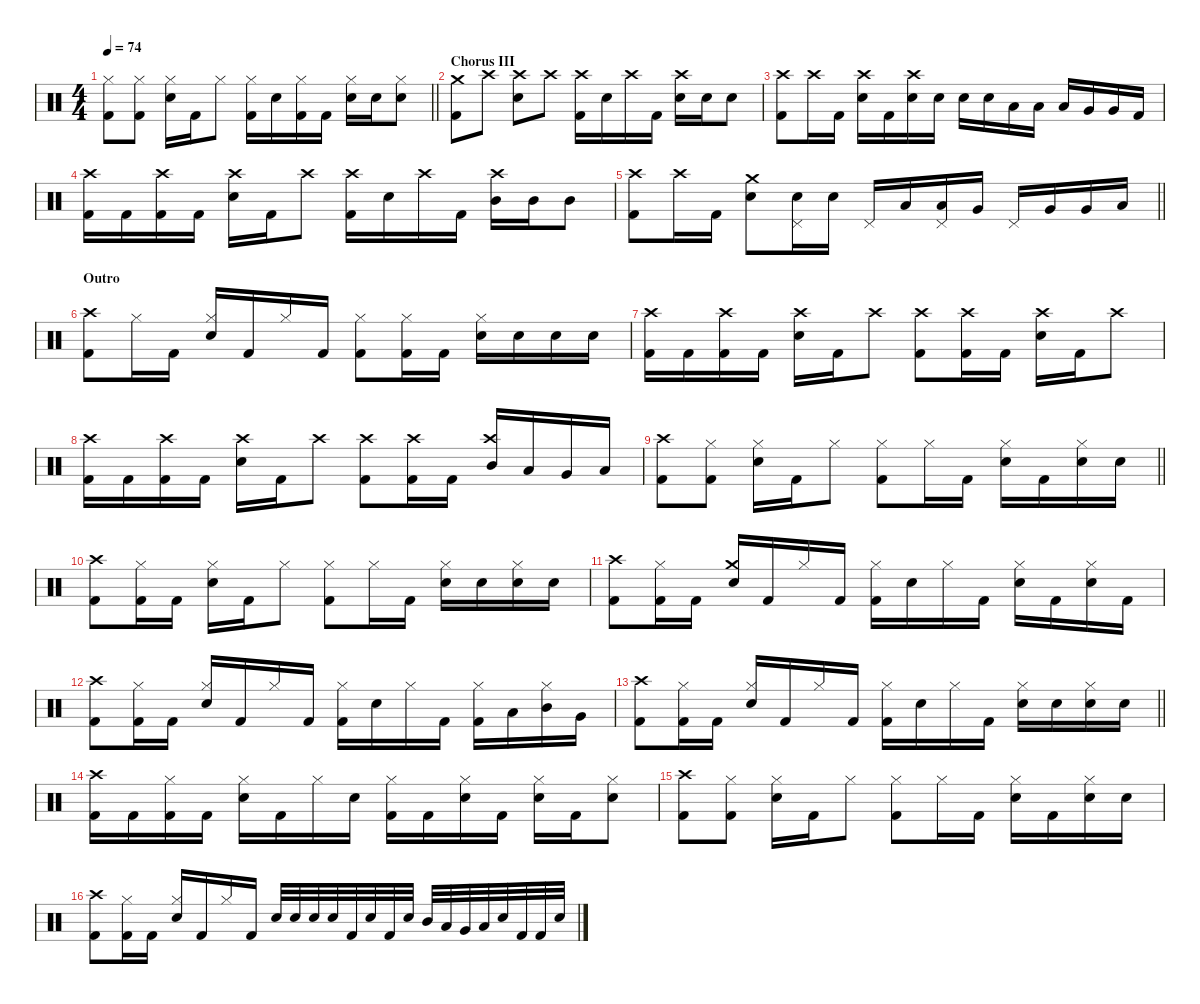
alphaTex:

\defaultSystemsLayout 4
\hideDynamics
\bracketExtendMode nobrackets
\singleTrackTrackNamePolicy hidden
\multiTrackTrackNamePolicy hidden
\firstSystemTrackNameMode fullname
\firstSystemTrackNameOrientation horizontal
\otherSystemsTrackNameOrientation horizontal
\track ("Bill Ward" "drm.") {instrument percussion}
\staff {score}
\articulation defaults
\ts (4 4)
\tempo 74
\clef neutral
\barLineRight lightlight
\ks c
("Kick (hit) 2" "Hi-Hat (closed)").8{dy f beam Down} ("Hi-Hat (closed)" "Kick (hit) 2").8{beam Down} ("Snare (hit) 2" "Hi-Hat (closed)").16{beam Down} "Kick (hit) 2".16{beam Down} "Hi-Hat (closed)".8{beam Down} ("Kick (hit) 2" "Hi-Hat (closed)").16{beam Down} "Snare (hit) 2".16{beam Down} ("Kick (hit) 2" "Hi-Hat (closed)").16{beam Down} "Kick (hit) 2".16{beam Down} ("Snare (hit) 2" "Hi-Hat (closed)").16{beam Down} "Snare (hit) 2".16{beam Down} ("Hi-Hat (closed)" "Snare (hit) 2").8{beam Down} |
\section ("" "Chorus III")
("Kick (hit) 2" "Crash medium (hit)").8{beam Down} "Crash high (hit)".8{beam Down} ("Snare (hit) 2" "Crash high (hit)").8{beam Down} "Crash high (hit)".8{beam Down} ("Kick (hit) 2" "Crash high (hit)").16{beam Down} "Snare (hit) 2".16{beam Down} "Crash high (hit)".16{beam Down} "Kick (hit) 2".16{beam Down} ("Snare (hit) 2" "Crash high (hit)").16{beam Down} "Snare (hit) 2".16{beam Down} "Snare (hit) 2".8{beam Down} |
("Kick (hit) 2" "Crash high (hit)").8{beam Down} "Crash high (hit)".16{beam Down} "Kick (hit) 2".16{beam Down} ("Snare (hit) 2" "Crash high (hit)").16{beam Down} "Kick (hit) 2".16{beam Down} ("Snare (hit) 2" "Crash high (hit)").16{beam Down} "Snare (hit) 2".16{beam Down} "Snare (hit) 2".16{beam Down} "Snare (hit) 2".16{beam Down} "Low Tom (hit)".16{beam Down} "Low Tom (hit)".16{beam Down} "Low Tom (hit)".16{beam Up} "Very Low Tom (hit)".16{beam Up} "Very Low Tom (hit)".16{beam Up} "Kick (hit) 2".16{beam Up} |
("Kick (hit) 2" "Crash high (hit)").16{beam Down} "Kick (hit) 2".16{beam Down} ("Crash high (hit)" "Kick (hit) 2").16{beam Down} "Kick (hit) 2".16{beam Down} ("Crash high (hit)" "Snare (hit) 2").16{beam Down} "Kick (hit) 2".16{beam Down} "Crash high (hit)".8{beam Down} ("Crash high (hit)" "Kick (hit) 2").16{beam Down} "Snare (hit) 2".16{beam Down} "Crash high (hit)".16{beam Down} "Kick (hit) 2".16{beam Down} ("Crash high (hit)" "Mid Tom (hit)").16{beam Down} "Mid Tom (hit)".16{beam Down} "Mid Tom (hit)".8{beam Down} |
\barLineRight lightlight
("Kick (hit) 2" "Crash high (hit)").8{beam Down} "Crash high (hit)".16{beam Down} "Kick (hit) 2".16{beam Down} ("Snare (hit) 2" "Crash medium (hit)").8{beam Down} ("Pedal Hi-Hat (hit)" "Snare (hit) 2").16{beam Down} "Snare (hit) 2".16{beam Down} "Pedal Hi-Hat (hit)".16{beam Up} "Low Tom (hit)".16{beam Up} ("Pedal Hi-Hat (hit)" "Low Tom (hit)").16{beam Up} "Very Low Tom (hit)".16{beam Up} "Pedal Hi-Hat (hit)".16{beam Up} "Very Low Tom (hit)".16{beam Up} "Very Low Tom (hit)".16{beam Up} "Low Floor Tom (hit)".16{beam Up} |
\section ("" "Outro")
("Kick (hit) 2" "Crash high (hit)").8{beam Down} "Hi-Hat (closed)".16{beam Down} "Kick (hit) 2".16{beam Down} ("Snare (hit) 2" "Hi-Hat (closed)").16{beam Up} "Kick (hit) 2".16{beam Up} "Hi-Hat (closed)".16{beam Up} "Kick (hit) 2".16{beam Up} ("Kick (hit) 2" "Hi-Hat (closed)").8{beam Down} ("Kick (hit) 2" "Hi-Hat (closed)").16{beam Down} "Kick (hit) 2".16{beam Down} ("Snare (hit) 2" "Hi-Hat (closed)").16{beam Down} "Snare (hit) 2".16{beam Down} "Snare (hit) 2".16{beam Down} "Snare (hit) 2".16{beam Down} |
("Kick (hit) 2" "Crash high (hit)").16{beam Down} "Kick (hit) 2".16{beam Down} ("Crash high (hit)" "Kick (hit) 2").16{beam Down} "Kick (hit) 2".16{beam Down} ("Crash high (hit)" "Snare (hit) 2").16{beam Down} "Kick (hit) 2".16{beam Down} "Crash high (hit)".8{beam Down} ("Kick (hit) 2" "Crash high (hit)").8{beam Down} ("Kick (hit) 2" "Crash high (hit)").16{beam Down} "Kick (hit) 2".16{beam Down} ("Snare (hit) 2" "Crash high (hit)").16{beam Down} "Kick (hit) 2".16{beam Down} "Crash high (hit)".8{beam Down} |
("Kick (hit) 2" "Crash high (hit)").16{beam Down} "Kick (hit) 2".16{beam Down} ("Crash high (hit)" "Kick (hit) 2").16{beam Down} "Kick (hit) 2".16{beam Down} ("Crash high (hit)" "Snare (hit) 2").16{beam Down} "Kick (hit) 2".16{beam Down} "Crash high (hit)".8{beam Down} ("Kick (hit) 2" "Crash high (hit)").8{beam Down} ("Kick (hit) 2" "Crash high (hit)").16{beam Down} "Kick (hit) 2".16{beam Down} ("Mid Tom (hit)" "Crash high (hit)").16{beam Up} "Low Tom (hit)".16{beam Up} "Very Low Tom (hit)".16{beam Up} "Low Floor Tom (hit)".16{beam Up} |
\barLineRight lightlight
("Kick (hit) 2" "Crash high (hit)").8{beam Down} ("Kick (hit) 2" "Hi-Hat (closed)").8{beam Down} ("Snare (hit) 2" "Hi-Hat (closed)").16{beam Down} "Kick (hit) 2".16{beam Down} "Hi-Hat (closed)".8{beam Down} ("Kick (hit) 2" "Hi-Hat (closed)").8{beam Down} "Hi-Hat (closed)".16{beam Down} "Kick (hit) 2".16{beam Down} ("Snare (hit) 2" "Hi-Hat (closed)").16{beam Down} "Kick (hit) 2".16{beam Down} ("Snare (hit) 2" "Hi-Hat (closed)").16{beam Down} "Snare (hit) 2".16{beam Down} |
("Kick (hit) 2" "Crash high (hit)").8{beam Down} ("Kick (hit) 2" "Hi-Hat (closed)").16{beam Down} "Kick (hit) 2".16{beam Down} ("Snare (hit) 2" "Hi-Hat (closed)").16{beam Down} "Kick (hit) 2".16{beam Down} "Hi-Hat (closed)".8{beam Down} ("Kick (hit) 2" "Hi-Hat (closed)").8{beam Down} "Hi-Hat (closed)".16{beam Down} "Kick (hit) 2".16{beam Down} ("Snare (hit) 2" "Hi-Hat (closed)").16{beam Down} "Snare (hit) 2".16{beam Down} ("Snare (hit) 2" "Hi-Hat (closed)").16{beam Down} "Snare (hit) 2".16{beam Down} |
("Kick (hit) 2" "Crash high (hit)").8{beam Down} ("Kick (hit) 2" "Hi-Hat (closed)").16{beam Down} "Kick (hit) 2".16{beam Down} ("Snare (hit) 2" "Crash medium (hit)").16{beam Up} "Kick (hit) 2".16{beam Up} "Hi-Hat (closed)".16{beam Up} "Kick (hit) 2".16{beam Up} ("Kick (hit) 2" "Hi-Hat (closed)").16{beam Down} "Snare (hit) 2".16{beam Down} "Hi-Hat (closed)".16{beam Down} "Kick (hit) 2".16{beam Down} ("Snare (hit) 2" "Hi-Hat (closed)").16{beam Down} "Kick (hit) 2".16{beam Down} ("Snare (hit) 2" "Hi-Hat (closed)").16{beam Down} "Kick (hit) 2".16{beam Down} |
("Kick (hit) 2" "Crash high (hit)").8{beam Down} ("Kick (hit) 2" "Hi-Hat (closed)").16{beam Down} "Kick (hit) 2".16{beam Down} ("Snare (hit) 2" "Hi-Hat (closed)").16{beam Up} "Kick (hit) 2".16{beam Up} "Hi-Hat (closed)".16{beam Up} "Kick (hit) 2".16{beam Up} ("Kick (hit) 2" "Hi-Hat (closed)").16{beam Down} "Snare (hit) 2".16{beam Down} "Hi-Hat (closed)".16{beam Down} "Kick (hit) 2".16{beam Down} ("Kick (hit) 2" "Hi-Hat (closed)").16{beam Down} "Low Tom (hit)".16{beam Down} ("Mid Tom (hit)" "Hi-Hat (closed)").16{beam Down} "Very Low Tom (hit)".16{beam Down} |
\barLineRight lightlight
("Kick (hit) 2" "Crash high (hit)").8{beam Down} ("Kick (hit) 2" "Hi-Hat (closed)").16{beam Down} "Kick (hit) 2".16{beam Down} ("Snare (hit) 2" "Hi-Hat (closed)").16{beam Up} "Kick (hit) 2".16{beam Up} "Hi-Hat (closed)".16{beam Up} "Kick (hit) 2".16{beam Up} ("Kick (hit) 2" "Hi-Hat (closed)").16{beam Down} "Snare (hit) 2".16{beam Down} "Hi-Hat (closed)".16{beam Down} "Kick (hit) 2".16{beam Down} ("Snare (hit) 2" "Hi-Hat (closed)").16{beam Down} "Snare (hit) 2".16{beam Down} ("Snare (hit) 2" "Hi-Hat (closed)").16{beam Down} "Snare (hit) 2".16{beam Down} |
("Kick (hit) 2" "Crash high (hit)").16{beam Down} "Kick (hit) 2".16{beam Down} ("Kick (hit) 2" "Hi-Hat (closed)").16{beam Down} "Kick (hit) 2".16{beam Down} ("Snare (hit) 2" "Hi-Hat (closed)").16{beam Down} "Kick (hit) 2".16{beam Down} "Hi-Hat (closed)".16{beam Down} "Snare (hit) 2".16{beam Down} ("Kick (hit) 2" "Hi-Hat (closed)").16{beam Down} "Kick (hit) 2".16{beam Down} ("Hi-Hat (closed)" "Snare (hit) 2").16{beam Down} "Kick (hit) 2".16{beam Down} ("Snare (hit) 2" "Hi-Hat (closed)").16{beam Down} "Kick (hit) 2".16{beam Down} ("Hi-Hat (closed)" "Snare (hit) 2").8{beam Down} |
("Kick (hit) 2" "Crash high (hit)").8{beam Down} ("Kick (hit) 2" "Hi-Hat (closed)").8{beam Down} ("Snare (hit) 2" "Hi-Hat (closed)").16{beam Down} "Kick (hit) 2".16{beam Down} "Hi-Hat (closed)".8{beam Down} ("Kick (hit) 2" "Hi-Hat (closed)").8{beam Down} "Hi-Hat (closed)".16{beam Down} "Kick (hit) 2".16{beam Down} ("Snare (hit) 2" "Hi-Hat (closed)").16{beam Down} "Kick (hit) 2".16{beam Down} ("Snare (hit) 2" "Hi-Hat (closed)").16{beam Down} "Snare (hit) 2".16{beam Down} |
("Kick (hit) 2" "Crash high (hit)").8{beam Down} ("Kick (hit) 2" "Hi-Hat (closed)").16{beam Down} "Kick (hit) 2".16{beam Down} ("Snare (hit) 2" "Hi-Hat (closed)").16{beam Up} "Kick (hit) 2".16{beam Up} "Hi-Hat (closed)".16{beam Up} "Kick (hit) 2".16{beam Up} "Snare (hit) 2".32{beam Up} "Snare (hit) 2".32{beam Up} "Snare (hit) 2".32{beam Up} "Snare (hit) 2".32{beam Up} "Kick (hit) 2".32{beam Up} "Snare (hit) 2".32{beam Up} "Kick (hit) 2".32{beam Up} "Snare (hit) 2".32{beam Up} "Mid Tom (hit)".32{beam Up} "Low Tom (hit)".32{beam Up} "Very Low Tom (hit)".32{beam Up} "Low Floor Tom (hit)".32{beam Up} "Snare (hit) 2".32{beam Up} "Kick (hit) 2".32{beam Up} "Kick (hit) 2".32{beam Up} "Snare (hit) 2".32{beam Up}
